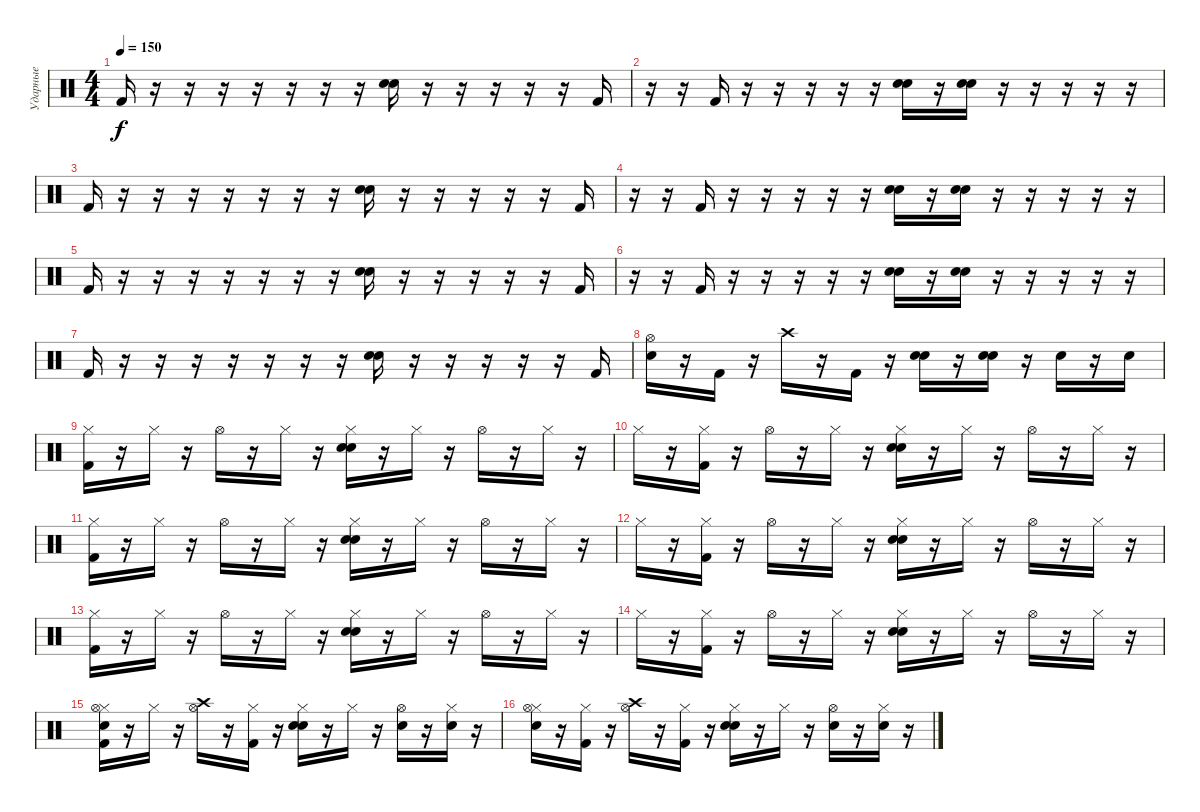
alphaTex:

\track ("Ударные" "Ударные") {instrument percussion}
\staff {score}
\articulation defaults
\ts (4 4)
\tempo 150
\clef neutral
\ks c "Kick (hit) 2".16{dy f volume 11}
r.16 r.16 r.16 r.16 r.16 r.16 r.16 ("Electric Snare (hit)" "Snare (hit) 2").16 r.16 r.16 r.16 r.16 r.16 "Kick (hit) 2".16 |
r.16 r.16 "Kick (hit) 2".16 r.16 r.16 r.16 r.16 r.16 ("Snare (hit) 2" "Electric Snare (hit)").16 r.16 ("Snare (hit) 2" "Electric Snare (hit)").16 r.16 r.16 r.16 r.16 r.16 |
"Kick (hit) 2".16{volume 16} r.16 r.16 r.16 r.16 r.16 r.16 r.16 ("Electric Snare (hit)" "Snare (hit) 2").16{volume 16} r.16 r.16 r.16 r.16 r.16 "Kick (hit) 2".16 |
r.16 r.16 "Kick (hit) 2".16 r.16 r.16 r.16 r.16 r.16 ("Snare (hit) 2" "Electric Snare (hit)").16 r.16 ("Snare (hit) 2" "Electric Snare (hit)").16 r.16 r.16 r.16 r.16 r.16 |
"Kick (hit) 2".16 r.16 r.16 r.16 r.16 r.16 r.16 r.16 ("Electric Snare (hit)" "Snare (hit) 2").16 r.16 r.16 r.16 r.16 r.16 "Kick (hit) 2".16 |
r.16 r.16 "Kick (hit) 2".16 r.16 r.16 r.16 r.16 r.16 ("Snare (hit) 2" "Electric Snare (hit)").16 r.16 ("Snare (hit) 2" "Electric Snare (hit)").16 r.16 r.16 r.16 r.16 r.16 |
"Kick (hit) 2".16 r.16 r.16 r.16 r.16 r.16 r.16 r.16 ("Electric Snare (hit)" "Snare (hit) 2").16 r.16 r.16 r.16 r.16 r.16 "Kick (hit) 2".16 |
("Snare (hit) 2" "Hi-Hat (open)").16 r.16 "Kick (hit) 2".16 r.16 "Crash high (hit)".16 r.16 "Kick (hit) 2".16 r.16 ("Snare (hit) 2" "Electric Snare (hit)").16 r.16 ("Snare (hit) 2" "Electric Snare (hit)").16 r.16 "Electric Snare (hit)".16 r.16 "Electric Snare (hit)".16 |
("Kick (hit) 2" "Hi-Hat (closed)").16 r.16 "Hi-Hat (closed)".16 r.16 "Hi-Hat (open)".16 r.16 "Hi-Hat (closed)".16 r.16 ("Hi-Hat (closed)" "Electric Snare (hit)" "Snare (hit) 2").16 r.16 "Hi-Hat (closed)".16 r.16 "Hi-Hat (open)".16 r.16 "Hi-Hat (closed)".16 r.16 |
"Hi-Hat (closed)".16 r.16 ("Hi-Hat (closed)" "Kick (hit) 2").16 r.16 "Hi-Hat (open)".16 r.16 "Hi-Hat (closed)".16 r.16 ("Hi-Hat (closed)" "Snare (hit) 2" "Electric Snare (hit)").16 r.16 "Hi-Hat (closed)".16 r.16 "Hi-Hat (open)".16 r.16 "Hi-Hat (closed)".16 r.16 |
("Kick (hit) 2" "Hi-Hat (closed)").16 r.16 "Hi-Hat (closed)".16 r.16 "Hi-Hat (open)".16 r.16 "Hi-Hat (closed)".16 r.16 ("Hi-Hat (closed)" "Electric Snare (hit)" "Snare (hit) 2").16 r.16 "Hi-Hat (closed)".16 r.16 "Hi-Hat (open)".16 r.16 "Hi-Hat (closed)".16 r.16 |
"Hi-Hat (closed)".16 r.16 ("Hi-Hat (closed)" "Kick (hit) 2").16 r.16 "Hi-Hat (open)".16 r.16 "Hi-Hat (closed)".16 r.16 ("Hi-Hat (closed)" "Snare (hit) 2" "Electric Snare (hit)").16 r.16 "Hi-Hat (closed)".16 r.16 "Hi-Hat (open)".16 r.16 "Hi-Hat (closed)".16 r.16 |
("Kick (hit) 2" "Hi-Hat (closed)").16 r.16 "Hi-Hat (closed)".16 r.16 "Hi-Hat (open)".16 r.16 "Hi-Hat (closed)".16 r.16 ("Hi-Hat (closed)" "Electric Snare (hit)" "Snare (hit) 2").16 r.16 "Hi-Hat (closed)".16 r.16 "Hi-Hat (open)".16 r.16 "Hi-Hat (closed)".16 r.16 |
"Hi-Hat (closed)".16 r.16 ("Hi-Hat (closed)" "Kick (hit) 2").16 r.16 "Hi-Hat (open)".16 r.16 "Hi-Hat (closed)".16 r.16 ("Hi-Hat (closed)" "Snare (hit) 2" "Electric Snare (hit)").16 r.16 "Hi-Hat (closed)".16 r.16 "Hi-Hat (open)".16 r.16 "Hi-Hat (closed)".16 r.16 |
("Kick (hit) 2" "Hi-Hat (closed)" "Hi-Hat (open)" "Snare (hit) 2").16 r.16 "Hi-Hat (closed)".16 r.16 ("Hi-Hat (open)" "Crash high (hit)").16 r.16 ("Hi-Hat (closed)" "Kick (hit) 2").16 r.16 ("Hi-Hat (closed)" "Electric Snare (hit)" "Snare (hit) 2").16 r.16 "Hi-Hat (closed)".16 r.16 ("Hi-Hat (open)" "Electric Snare (hit)").16 r.16 ("Hi-Hat (closed)" "Electric Snare (hit)").16 r.16 |
("Hi-Hat (closed)" "Hi-Hat (open)" "Snare (hit) 2").16 r.16 ("Hi-Hat (closed)" "Kick (hit) 2").16 r.16 ("Hi-Hat (open)" "Crash high (hit)").16 r.16 ("Hi-Hat (closed)" "Kick (hit) 2").16 r.16 ("Hi-Hat (closed)" "Snare (hit) 2" "Electric Snare (hit)").16 r.16 "Hi-Hat (closed)".16 r.16 ("Hi-Hat (open)" "Electric Snare (hit)").16 r.16 ("Hi-Hat (closed)" "Electric Snare (hit)").16 r.16
